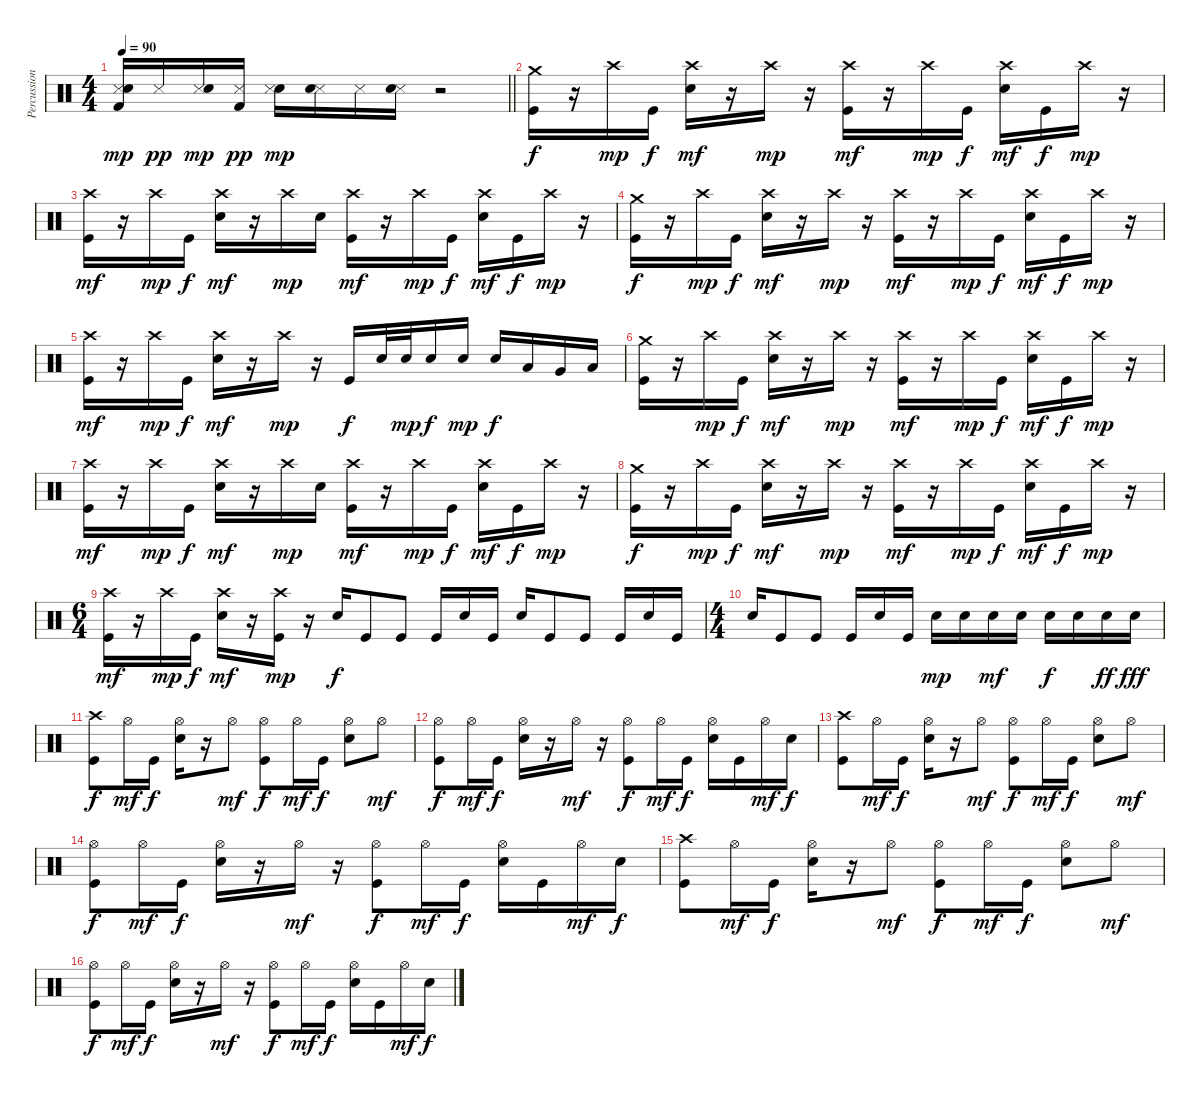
\track ("Percussion" "Percussion") {instrument percussion}
\staff {score}
\articulation defaults
\ts (4 4)
\tempo 90
\clef neutral
\barLineRight lightlight
\ks c
("Kick (hit) 2" "Snare (side stick) 3" "Hand Clap (hit)").16{dy mp} "Snare (side stick) 3".16{dy pp} ("Snare (side stick) 3" "Hand Clap (hit)").16{dy mp} ("Kick (hit) 2" "Snare (side stick) 3").16{dy pp} ("Electric Snare (hit)" "Snare (side stick) 3").16{dy mp} ("Snare (side stick) 3" "Hand Clap (hit)").16 "Snare (side stick) 3".16 ("Snare (side stick) 3" "Hand Clap (hit)").16 r.2{volume 16} |
("Crash medium (hit)" "Kick (hit)").16{dy f} r.16 "Crash high (hit)".16{dy mp} "Kick (hit)".16{dy f} ("Crash high (hit)" "Snare (hit) 2").16{dy mf} r.16 "Crash high (hit)".16{dy mp} r.16 ("Crash high (hit)" "Kick (hit)").16{dy mf} r.16 "Crash high (hit)".16{dy mp} "Kick (hit)".16{dy f} ("Crash high (hit)" "Snare (hit) 2").16{dy mf} "Kick (hit)".16{dy f} "Crash high (hit)".16{dy mp} r.16 |
("Crash high (hit)" "Kick (hit)").16{dy mf} r.16 "Crash high (hit)".16{dy mp} "Kick (hit)".16{dy f} ("Crash high (hit)" "Snare (hit) 2").16{dy mf} r.16 "Crash high (hit)".16{dy mp} "Snare (hit) 2".16 ("Crash high (hit)" "Kick (hit)").16{dy mf} r.16 "Crash high (hit)".16{dy mp} "Kick (hit)".16{dy f} ("Crash high (hit)" "Snare (hit) 2").16{dy mf} "Kick (hit)".16{dy f} "Crash high (hit)".16{dy mp} r.16 |
("Crash medium (hit)" "Kick (hit)").16{dy f} r.16 "Crash high (hit)".16{dy mp} "Kick (hit)".16{dy f} ("Crash high (hit)" "Snare (hit) 2").16{dy mf} r.16 "Crash high (hit)".16{dy mp} r.16 ("Crash high (hit)" "Kick (hit)").16{dy mf} r.16 "Crash high (hit)".16{dy mp} "Kick (hit)".16{dy f} ("Crash high (hit)" "Snare (hit) 2").16{dy mf} "Kick (hit)".16{dy f} "Crash high (hit)".16{dy mp} r.16 |
("Crash high (hit)" "Kick (hit)").16{dy mf} r.16 "Crash high (hit)".16{dy mp} "Kick (hit)".16{dy f} ("Crash high (hit)" "Snare (hit) 2").16{dy mf} r.16 "Crash high (hit)".16{dy mp} r.16 "Kick (hit)".16{dy f} "Snare (hit) 2".32 "Snare (hit) 2".32{dy mp} "Snare (hit) 2".16{dy f} "Snare (hit) 2".16{dy mp} "Snare (hit) 2".16{dy f} "Low Tom (hit)".16 "Very Low Tom (hit)".16 "Low Floor Tom (hit)".16 |
("Crash medium (hit)" "Kick (hit)").16 r.16 "Crash high (hit)".16{dy mp} "Kick (hit)".16{dy f} ("Crash high (hit)" "Snare (hit) 2").16{dy mf} r.16 "Crash high (hit)".16{dy mp} r.16 ("Crash high (hit)" "Kick (hit)").16{dy mf} r.16 "Crash high (hit)".16{dy mp} "Kick (hit)".16{dy f} ("Crash high (hit)" "Snare (hit) 2").16{dy mf} "Kick (hit)".16{dy f} "Crash high (hit)".16{dy mp} r.16 |
("Crash high (hit)" "Kick (hit)").16{dy mf} r.16 "Crash high (hit)".16{dy mp} "Kick (hit)".16{dy f} ("Crash high (hit)" "Snare (hit) 2").16{dy mf} r.16 "Crash high (hit)".16{dy mp} "Snare (hit) 2".16 ("Crash high (hit)" "Kick (hit)").16{dy mf} r.16 "Crash high (hit)".16{dy mp} "Kick (hit)".16{dy f} ("Crash high (hit)" "Snare (hit) 2").16{dy mf} "Kick (hit)".16{dy f} "Crash high (hit)".16{dy mp} r.16 |
("Crash medium (hit)" "Kick (hit)").16{dy f} r.16 "Crash high (hit)".16{dy mp} "Kick (hit)".16{dy f} ("Crash high (hit)" "Snare (hit) 2").16{dy mf} r.16 "Crash high (hit)".16{dy mp} r.16 ("Crash high (hit)" "Kick (hit)").16{dy mf} r.16 "Crash high (hit)".16{dy mp} "Kick (hit)".16{dy f} ("Crash high (hit)" "Snare (hit) 2").16{dy mf} "Kick (hit)".16{dy f} "Crash high (hit)".16{dy mp} r.16 |
\ts (6 4)
("Crash high (hit)" "Kick (hit)").16{dy mf} r.16 "Crash high (hit)".16{dy mp} "Kick (hit)".16{dy f} ("Crash high (hit)" "Snare (hit) 2").16{dy mf} r.16 ("Crash high (hit)" "Kick (hit)").16{dy mp} r.16 "Snare (hit) 2".16{dy f} "Kick (hit)".8 "Kick (hit)".8 "Kick (hit)".16 "Snare (hit) 2".16 "Kick (hit)".16 "Snare (hit) 2".16 "Kick (hit)".8 "Kick (hit)".8 "Kick (hit)".16 "Snare (hit) 2".16 "Kick (hit)".16 |
\ts (4 4)
"Snare (hit) 2".16 "Kick (hit)".8 "Kick (hit)".8 "Kick (hit)".16 "Snare (hit) 2".16 "Kick (hit)".16 "Snare (hit) 2".16{dy mp} "Snare (hit) 2".16 "Snare (hit) 2".16{dy mf} "Snare (hit) 2".16 "Snare (hit) 2".16{dy f} "Snare (hit) 2".16 "Snare (hit) 2".16{dy ff} "Snare (hit) 2".16{dy fff} |
("Crash high (hit)" "Kick (hit)").8{dy f} "Hi-Hat (open)".16{dy mf} "Kick (hit)".16{dy f} ("Hi-Hat (open)" "Snare (hit) 2").16 r.16 "Hi-Hat (open)".8{dy mf} ("Hi-Hat (open)" "Kick (hit)").8{dy f} "Hi-Hat (open)".16{dy mf} "Kick (hit)".16{dy f} ("Hi-Hat (open)" "Snare (hit) 2").8 "Hi-Hat (open)".8{dy mf} |
("Hi-Hat (open)" "Kick (hit)").8{dy f} "Hi-Hat (open)".16{dy mf} "Kick (hit)".16{dy f} ("Hi-Hat (open)" "Snare (hit) 2").16 r.16 "Hi-Hat (open)".16{dy mf} r.16 ("Hi-Hat (open)" "Kick (hit)").8{dy f} "Hi-Hat (open)".16{dy mf} "Kick (hit)".16{dy f} ("Hi-Hat (open)" "Snare (hit) 2").16 "Kick (hit)".16 "Hi-Hat (open)".16{dy mf} "Snare (hit) 2".16{dy f} |
("Crash high (hit)" "Kick (hit)").8 "Hi-Hat (open)".16{dy mf} "Kick (hit)".16{dy f} ("Hi-Hat (open)" "Snare (hit) 2").16 r.16 "Hi-Hat (open)".8{dy mf} ("Hi-Hat (open)" "Kick (hit)").8{dy f} "Hi-Hat (open)".16{dy mf} "Kick (hit)".16{dy f} ("Hi-Hat (open)" "Snare (hit) 2").8 "Hi-Hat (open)".8{dy mf} |
("Hi-Hat (open)" "Kick (hit)").8{dy f} "Hi-Hat (open)".16{dy mf} "Kick (hit)".16{dy f} ("Hi-Hat (open)" "Snare (hit) 2").16 r.16 "Hi-Hat (open)".16{dy mf} r.16 ("Hi-Hat (open)" "Kick (hit)").8{dy f} "Hi-Hat (open)".16{dy mf} "Kick (hit)".16{dy f} ("Hi-Hat (open)" "Snare (hit) 2").16 "Kick (hit)".16 "Hi-Hat (open)".16{dy mf} "Snare (hit) 2".16{dy f} |
("Crash high (hit)" "Kick (hit)").8 "Hi-Hat (open)".16{dy mf} "Kick (hit)".16{dy f} ("Hi-Hat (open)" "Snare (hit) 2").16 r.16 "Hi-Hat (open)".8{dy mf} ("Hi-Hat (open)" "Kick (hit)").8{dy f} "Hi-Hat (open)".16{dy mf} "Kick (hit)".16{dy f} ("Hi-Hat (open)" "Snare (hit) 2").8 "Hi-Hat (open)".8{dy mf} |
("Hi-Hat (open)" "Kick (hit)").8{dy f} "Hi-Hat (open)".16{dy mf} "Kick (hit)".16{dy f} ("Hi-Hat (open)" "Snare (hit) 2").16 r.16 "Hi-Hat (open)".16{dy mf} r.16 ("Hi-Hat (open)" "Kick (hit)").8{dy f} "Hi-Hat (open)".16{dy mf} "Kick (hit)".16{dy f} ("Hi-Hat (open)" "Snare (hit) 2").16 "Kick (hit)".16 "Hi-Hat (open)".16{dy mf} "Snare (hit) 2".16{dy f}
